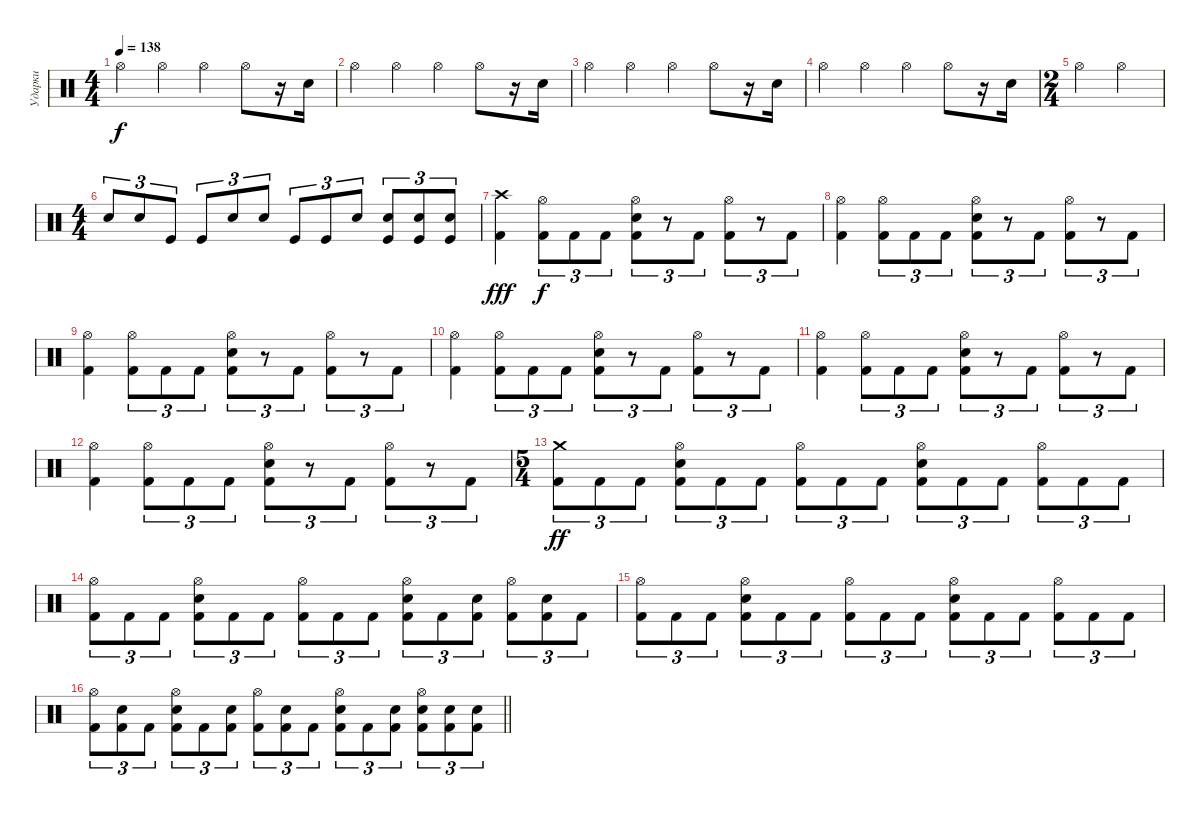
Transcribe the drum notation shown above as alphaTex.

\track ("Ударки" "Ударки") {instrument percussion}
\staff {score}
\articulation defaults
\ts (4 4)
\tempo 138
\clef neutral
\ks c "Hi-Hat (open)".4{dy f} "Hi-Hat (open)".4 "Hi-Hat (open)".4 "Hi-Hat (open)".8
r.16 "Snare (hit) 2".16 |
"Hi-Hat (open)".4 "Hi-Hat (open)".4 "Hi-Hat (open)".4 "Hi-Hat (open)".8 r.16 "Snare (hit) 2".16 |
"Hi-Hat (open)".4 "Hi-Hat (open)".4 "Hi-Hat (open)".4 "Hi-Hat (open)".8 r.16 "Snare (hit) 2".16 |
"Hi-Hat (open)".4 "Hi-Hat (open)".4 "Hi-Hat (open)".4 "Hi-Hat (open)".8 r.16 "Snare (hit) 2".16 |
\ts (2 4)
"Hi-Hat (open)".4 "Hi-Hat (open)".4 |
\ts (4 4)
"Snare (hit) 2".8{tu (3 2)} "Snare (hit) 2".8{tu (3 2)} "Kick (hit)".8{tu (3 2)} "Kick (hit)".8{tu (3 2)} "Snare (hit) 2".8{tu (3 2)} "Snare (hit) 2".8{tu (3 2)} "Kick (hit)".8{tu (3 2)} "Kick (hit)".8{tu (3 2)} "Snare (hit) 2".8{tu (3 2)} ("Snare (hit) 2" "Kick (hit)").8{tu (3 2)} ("Snare (hit) 2" "Kick (hit)").8{tu (3 2)} ("Snare (hit) 2" "Kick (hit)").8{tu (3 2)} |
("Crash high (hit)" "Kick (hit) 2").4{dy fff} ("Hi-Hat (open)" "Kick (hit) 2").8{tu (3 2) dy f} "Kick (hit) 2".8{tu (3 2)} "Kick (hit) 2".8{tu (3 2)} ("Hi-Hat (open)" "Snare (hit) 2" "Kick (hit) 2").8{tu (3 2)} r.8{tu (3 2)} "Kick (hit) 2".8{tu (3 2)} ("Hi-Hat (open)" "Kick (hit) 2").8{tu (3 2)} r.8{tu (3 2)} "Kick (hit) 2".8{tu (3 2)} |
("Hi-Hat (open)" "Kick (hit) 2").4 ("Hi-Hat (open)" "Kick (hit) 2").8{tu (3 2)} "Kick (hit) 2".8{tu (3 2)} "Kick (hit) 2".8{tu (3 2)} ("Hi-Hat (open)" "Snare (hit) 2" "Kick (hit) 2").8{tu (3 2)} r.8{tu (3 2)} "Kick (hit) 2".8{tu (3 2)} ("Hi-Hat (open)" "Kick (hit) 2").8{tu (3 2)} r.8{tu (3 2)} "Kick (hit) 2".8{tu (3 2)} |
("Hi-Hat (open)" "Kick (hit) 2").4 ("Hi-Hat (open)" "Kick (hit) 2").8{tu (3 2)} "Kick (hit) 2".8{tu (3 2)} "Kick (hit) 2".8{tu (3 2)} ("Hi-Hat (open)" "Snare (hit) 2" "Kick (hit) 2").8{tu (3 2)} r.8{tu (3 2)} "Kick (hit) 2".8{tu (3 2)} ("Hi-Hat (open)" "Kick (hit) 2").8{tu (3 2)} r.8{tu (3 2)} "Kick (hit) 2".8{tu (3 2)} |
("Hi-Hat (open)" "Kick (hit) 2").4 ("Hi-Hat (open)" "Kick (hit) 2").8{tu (3 2)} "Kick (hit) 2".8{tu (3 2)} "Kick (hit) 2".8{tu (3 2)} ("Hi-Hat (open)" "Snare (hit) 2" "Kick (hit) 2").8{tu (3 2)} r.8{tu (3 2)} "Kick (hit) 2".8{tu (3 2)} ("Hi-Hat (open)" "Kick (hit) 2").8{tu (3 2)} r.8{tu (3 2)} "Kick (hit) 2".8{tu (3 2)} |
("Hi-Hat (open)" "Kick (hit) 2").4 ("Hi-Hat (open)" "Kick (hit) 2").8{tu (3 2)} "Kick (hit) 2".8{tu (3 2)} "Kick (hit) 2".8{tu (3 2)} ("Hi-Hat (open)" "Snare (hit) 2" "Kick (hit) 2").8{tu (3 2)} r.8{tu (3 2)} "Kick (hit) 2".8{tu (3 2)} ("Hi-Hat (open)" "Kick (hit) 2").8{tu (3 2)} r.8{tu (3 2)} "Kick (hit) 2".8{tu (3 2)} |
("Hi-Hat (open)" "Kick (hit) 2").4 ("Hi-Hat (open)" "Kick (hit) 2").8{tu (3 2)} "Kick (hit) 2".8{tu (3 2)} "Kick (hit) 2".8{tu (3 2)} ("Hi-Hat (open)" "Snare (hit) 2" "Kick (hit) 2").8{tu (3 2)} r.8{tu (3 2)} "Kick (hit) 2".8{tu (3 2)} ("Hi-Hat (open)" "Kick (hit) 2").8{tu (3 2)} r.8{tu (3 2)} "Kick (hit) 2".8{tu (3 2)} |
\ts (5 4)
("Crash medium (hit)" "Kick (hit) 2").8{tu (3 2) dy ff} "Kick (hit) 2".8{tu (3 2)} "Kick (hit) 2".8{tu (3 2)} ("Hi-Hat (open)" "Snare (hit) 2" "Kick (hit) 2").8{tu (3 2)} "Kick (hit) 2".8{tu (3 2)} "Kick (hit) 2".8{tu (3 2)} ("Hi-Hat (open)" "Kick (hit) 2").8{tu (3 2)} "Kick (hit) 2".8{tu (3 2)} "Kick (hit) 2".8{tu (3 2)} ("Hi-Hat (open)" "Snare (hit) 2" "Kick (hit) 2").8{tu (3 2)} "Kick (hit) 2".8{tu (3 2)} "Kick (hit) 2".8{tu (3 2)} ("Hi-Hat (open)" "Kick (hit) 2").8{tu (3 2)} "Kick (hit) 2".8{tu (3 2)} "Kick (hit) 2".8{tu (3 2)} |
("Hi-Hat (open)" "Kick (hit) 2").8{tu (3 2)} "Kick (hit) 2".8{tu (3 2)} "Kick (hit) 2".8{tu (3 2)} ("Hi-Hat (open)" "Snare (hit) 2" "Kick (hit) 2").8{tu (3 2)} "Kick (hit) 2".8{tu (3 2)} "Kick (hit) 2".8{tu (3 2)} ("Hi-Hat (open)" "Kick (hit) 2").8{tu (3 2)} "Kick (hit) 2".8{tu (3 2)} "Kick (hit) 2".8{tu (3 2)} ("Hi-Hat (open)" "Snare (hit) 2" "Kick (hit) 2").8{tu (3 2)} "Kick (hit) 2".8{tu (3 2)} ("Snare (hit) 2" "Kick (hit) 2").8{tu (3 2)} ("Hi-Hat (open)" "Kick (hit) 2").8{tu (3 2)} ("Snare (hit) 2" "Kick (hit) 2").8{tu (3 2)} "Kick (hit) 2".8{tu (3 2)} |
("Hi-Hat (open)" "Kick (hit) 2").8{tu (3 2)} "Kick (hit) 2".8{tu (3 2)} "Kick (hit) 2".8{tu (3 2)} ("Hi-Hat (open)" "Snare (hit) 2" "Kick (hit) 2").8{tu (3 2)} "Kick (hit) 2".8{tu (3 2)} "Kick (hit) 2".8{tu (3 2)} ("Hi-Hat (open)" "Kick (hit) 2").8{tu (3 2)} "Kick (hit) 2".8{tu (3 2)} "Kick (hit) 2".8{tu (3 2)} ("Hi-Hat (open)" "Snare (hit) 2" "Kick (hit) 2").8{tu (3 2)} "Kick (hit) 2".8{tu (3 2)} "Kick (hit) 2".8{tu (3 2)} ("Hi-Hat (open)" "Kick (hit) 2").8{tu (3 2)} "Kick (hit) 2".8{tu (3 2)} "Kick (hit) 2".8{tu (3 2)} |
\barLineRight lightlight
("Hi-Hat (open)" "Kick (hit) 2").8{tu (3 2)} ("Snare (hit) 2" "Kick (hit) 2").8{tu (3 2)} "Kick (hit) 2".8{tu (3 2)} ("Hi-Hat (open)" "Snare (hit) 2" "Kick (hit) 2").8{tu (3 2)} "Kick (hit) 2".8{tu (3 2)} ("Snare (hit) 2" "Kick (hit) 2").8{tu (3 2)} ("Hi-Hat (open)" "Kick (hit) 2").8{tu (3 2)} ("Snare (hit) 2" "Kick (hit) 2").8{tu (3 2)} "Kick (hit) 2".8{tu (3 2)} ("Hi-Hat (open)" "Snare (hit) 2" "Kick (hit) 2").8{tu (3 2)} "Kick (hit) 2".8{tu (3 2)} ("Snare (hit) 2" "Kick (hit) 2").8{tu (3 2)} ("Hi-Hat (open)" "Snare (hit) 2" "Kick (hit) 2").8{tu (3 2)} ("Snare (hit) 2" "Kick (hit) 2").8{tu (3 2)} ("Snare (hit) 2" "Kick (hit) 2").8{tu (3 2)}
